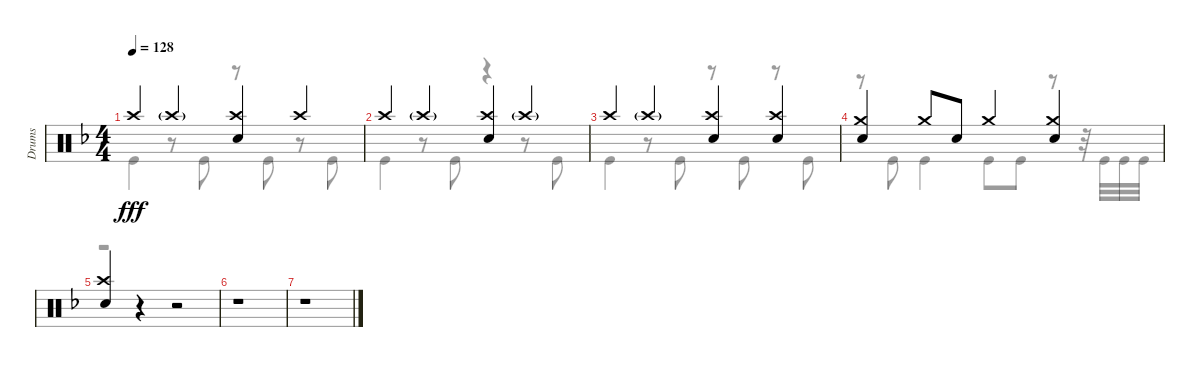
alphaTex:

\track ("Drums" "Drums") {instrument percussion}
\staff {score}
\articulation defaults
\voice
\ts (4 4)
\tempo 128
\clef neutral
\ks dminor "Crash high (hit)".4{dy fff} "Crash high (hit)"{g}.4
("Crash high (hit)" "Electric Snare (hit)").4 "Crash high (hit)".4 |
"Crash high (hit)".4 "Crash high (hit)"{g}.4 ("Crash high (hit)" "Electric Snare (hit)").4 "Crash high (hit)"{g}.4 |
"Crash high (hit)".4 "Crash high (hit)"{g}.4 ("Crash high (hit)" "Electric Snare (hit)").4 ("Crash high (hit)" "Electric Snare (hit)").4 |
("Crash medium (hit)" "Electric Snare (hit)").4 "Crash medium (hit)".8 "Electric Snare (hit)".8 "Crash medium (hit)".4 ("Crash medium (hit)" "Electric Snare (hit)").4 |
("Crash high (hit)" "Electric Snare (hit)").4 r.4 r.2 |
r.1 |
r.1
\voice
\clef neutral
\ottava regular
\simile none
\ks dminor "Kick (hit)".4{dy fff}
r.8 "Kick (hit)".8 r.8 "Kick (hit)".8 r.8 "Kick (hit)".8 |
"Kick (hit)".4 r.8 "Kick (hit)".8 r.4 r.8 "Kick (hit)".8 |
"Kick (hit)".4 r.8 "Kick (hit)".8 r.8 "Kick (hit)".8 r.8 "Kick (hit)".8 |
r.8 "Kick (hit)".8 "Kick (hit)".4 "Kick (hit)".8 "Kick (hit)".8 r.8 r.32 "Kick (hit)".32 "Kick (hit)".32 "Kick (hit)".32 |
r.1 |
r.1 |
r.1
